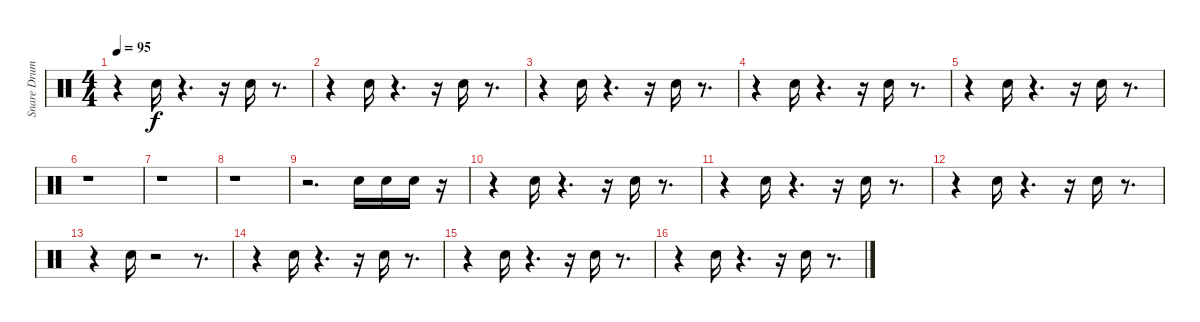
\track ("Snare Drum" "Snare Drum") {instrument percussion}
\staff {score}
\articulation defaults
\ts (4 4)
\tempo 95
\clef neutral
\ks c
r.4{dy f} "Snare (hit) 2".16 r.4{d} r.16 "Snare (hit) 2".16 r.8{d} |
r.4 "Snare (hit) 2".16 r.4{d} r.16 "Snare (hit) 2".16 r.8{d} |
r.4 "Snare (hit) 2".16 r.4{d} r.16 "Snare (hit) 2".16 r.8{d} |
r.4 "Snare (hit) 2".16 r.4{d} r.16 "Snare (hit) 2".16 r.8{d} |
r.4 "Snare (hit) 2".16 r.4{d} r.16 "Snare (hit) 2".16 r.8{d} |
r.1 |
r.1 |
r.1 |
r.2{d} "Snare (hit) 2".16 "Snare (hit) 2".16 "Snare (hit) 2".16 r.16 |
r.4 "Snare (hit) 2".16 r.4{d} r.16 "Snare (hit) 2".16 r.8{d} |
r.4 "Snare (hit) 2".16 r.4{d} r.16 "Snare (hit) 2".16 r.8{d} |
r.4 "Snare (hit) 2".16 r.4{d} r.16 "Snare (hit) 2".16 r.8{d} |
r.4 "Snare (hit) 2".16 r.2 r.8{d} |
r.4 "Snare (hit) 2".16 r.4{d} r.16 "Snare (hit) 2".16 r.8{d} |
r.4 "Snare (hit) 2".16 r.4{d} r.16 "Snare (hit) 2".16 r.8{d} |
r.4 "Snare (hit) 2".16 r.4{d} r.16 "Snare (hit) 2".16 r.8{d}
